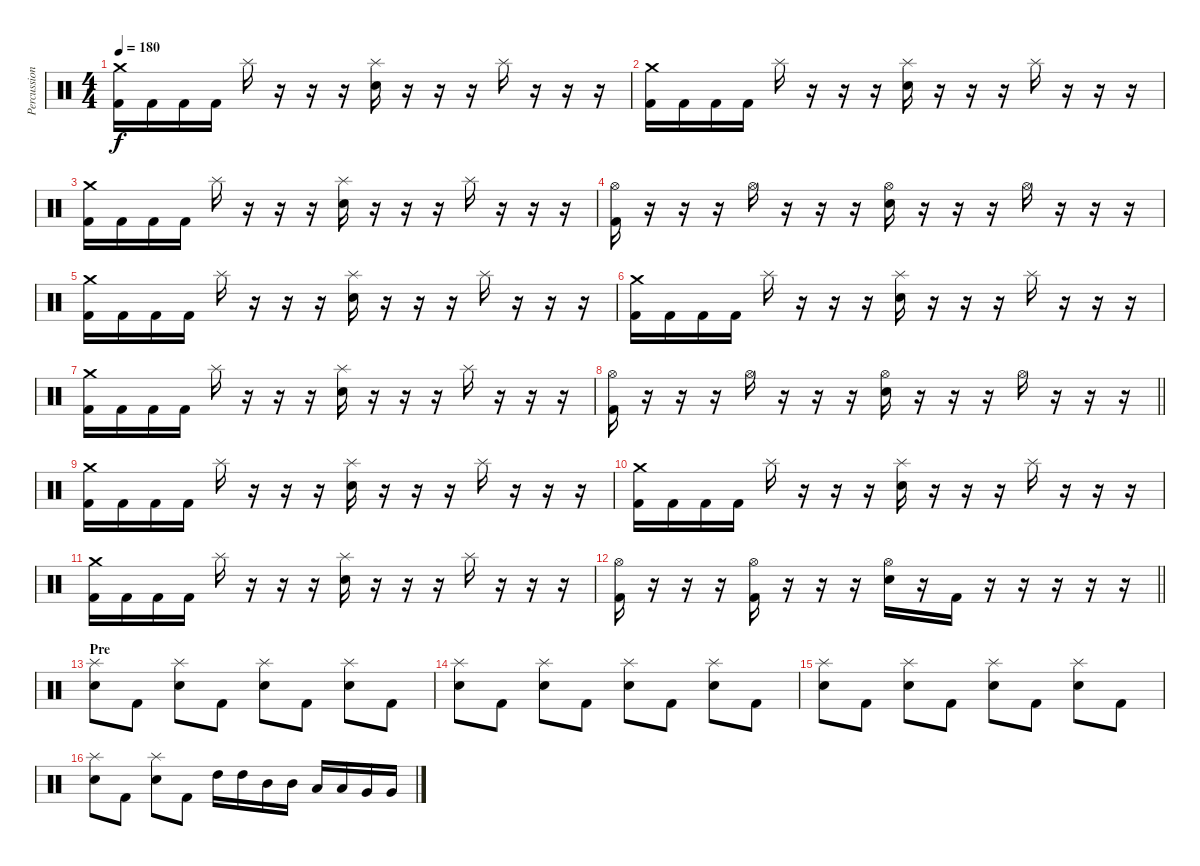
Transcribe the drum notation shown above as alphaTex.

\track ("Percussion" "Percussion") {instrument percussion}
\staff {score}
\articulation defaults
\ts (4 4)
\tempo 180
\clef neutral
\ks c
("Crash medium (hit)" "Kick (hit) 2").16{dy f} "Kick (hit) 2".16 "Kick (hit) 2".16 "Kick (hit) 2".16 "Splash (hit)".16 r.16 r.16 r.16 ("Splash (hit)" "Electric Snare (hit)").16 r.16 r.16 r.16 "Splash (hit)".16 r.16 r.16 r.16 |
("Crash medium (hit)" "Kick (hit) 2").16 "Kick (hit) 2".16 "Kick (hit) 2".16 "Kick (hit) 2".16 "Splash (hit)".16 r.16 r.16 r.16 ("Splash (hit)" "Electric Snare (hit)").16 r.16 r.16 r.16 "Splash (hit)".16 r.16 r.16 r.16 |
("Crash medium (hit)" "Kick (hit) 2").16 "Kick (hit) 2".16 "Kick (hit) 2".16 "Kick (hit) 2".16 "Splash (hit)".16 r.16 r.16 r.16 ("Splash (hit)" "Electric Snare (hit)").16 r.16 r.16 r.16 "Splash (hit)".16 r.16 r.16 r.16 |
("Hi-Hat (open)" "Kick (hit) 2").16 r.16 r.16 r.16 "Hi-Hat (open)".16 r.16 r.16 r.16 ("Hi-Hat (open)" "Electric Snare (hit)").16 r.16 r.16 r.16 "Hi-Hat (open)".16 r.16 r.16 r.16 |
("Crash medium (hit)" "Kick (hit) 2").16 "Kick (hit) 2".16 "Kick (hit) 2".16 "Kick (hit) 2".16 "Splash (hit)".16 r.16 r.16 r.16 ("Splash (hit)" "Electric Snare (hit)").16 r.16 r.16 r.16 "Splash (hit)".16 r.16 r.16 r.16 |
("Crash medium (hit)" "Kick (hit) 2").16 "Kick (hit) 2".16 "Kick (hit) 2".16 "Kick (hit) 2".16 "Splash (hit)".16 r.16 r.16 r.16 ("Splash (hit)" "Electric Snare (hit)").16 r.16 r.16 r.16 "Splash (hit)".16 r.16 r.16 r.16 |
("Crash medium (hit)" "Kick (hit) 2").16 "Kick (hit) 2".16 "Kick (hit) 2".16 "Kick (hit) 2".16 "Splash (hit)".16 r.16 r.16 r.16 ("Splash (hit)" "Electric Snare (hit)").16 r.16 r.16 r.16 "Splash (hit)".16 r.16 r.16 r.16 |
\barLineRight lightlight
("Hi-Hat (open)" "Kick (hit) 2").16 r.16 r.16 r.16 "Hi-Hat (open)".16 r.16 r.16 r.16 ("Hi-Hat (open)" "Electric Snare (hit)").16 r.16 r.16 r.16 "Hi-Hat (open)".16 r.16 r.16 r.16 |
("Crash medium (hit)" "Kick (hit) 2").16 "Kick (hit) 2".16 "Kick (hit) 2".16 "Kick (hit) 2".16 "Splash (hit)".16 r.16 r.16 r.16 ("Splash (hit)" "Electric Snare (hit)").16 r.16 r.16 r.16 "Splash (hit)".16 r.16 r.16 r.16 |
("Crash medium (hit)" "Kick (hit) 2").16 "Kick (hit) 2".16 "Kick (hit) 2".16 "Kick (hit) 2".16 "Splash (hit)".16 r.16 r.16 r.16 ("Splash (hit)" "Electric Snare (hit)").16 r.16 r.16 r.16 "Splash (hit)".16 r.16 r.16 r.16 |
("Crash medium (hit)" "Kick (hit) 2").16 "Kick (hit) 2".16 "Kick (hit) 2".16 "Kick (hit) 2".16 "Splash (hit)".16 r.16 r.16 r.16 ("Splash (hit)" "Electric Snare (hit)").16 r.16 r.16 r.16 "Splash (hit)".16 r.16 r.16 r.16 |
\barLineRight lightlight
("Hi-Hat (open)" "Kick (hit) 2").16 r.16 r.16 r.16 ("Hi-Hat (open)" "Kick (hit) 2").16 r.16 r.16 r.16 ("Hi-Hat (open)" "Electric Snare (hit)").16 r.16 "Kick (hit) 2".16 r.16 r.16 r.16 r.16 r.16 |
\section ("" "Pre")
("Splash (hit)" "Electric Snare (hit)").8 "Kick (hit) 2".8 ("Splash (hit)" "Electric Snare (hit)").8 "Kick (hit) 2".8 ("Splash (hit)" "Electric Snare (hit)").8 "Kick (hit) 2".8 ("Splash (hit)" "Electric Snare (hit)").8 "Kick (hit) 2".8 |
("Splash (hit)" "Electric Snare (hit)").8 "Kick (hit) 2".8 ("Splash (hit)" "Electric Snare (hit)").8 "Kick (hit) 2".8 ("Splash (hit)" "Electric Snare (hit)").8 "Kick (hit) 2".8 ("Splash (hit)" "Electric Snare (hit)").8 "Kick (hit) 2".8 |
("Splash (hit)" "Electric Snare (hit)").8 "Kick (hit) 2".8 ("Splash (hit)" "Electric Snare (hit)").8 "Kick (hit) 2".8 ("Splash (hit)" "Electric Snare (hit)").8 "Kick (hit) 2".8 ("Splash (hit)" "Electric Snare (hit)").8 "Kick (hit) 2".8 |
("Splash (hit)" "Electric Snare (hit)").8 "Kick (hit) 2".8 ("Splash (hit)" "Electric Snare (hit)").8 "Kick (hit) 2".8 "High Tom (hit)".16 "High Tom (hit)".16 "Mid Tom (hit)".16 "Mid Tom (hit)".16 "Low Tom (hit)".16 "Low Tom (hit)".16 "Very Low Tom (hit)".16 "Very Low Tom (hit)".16
